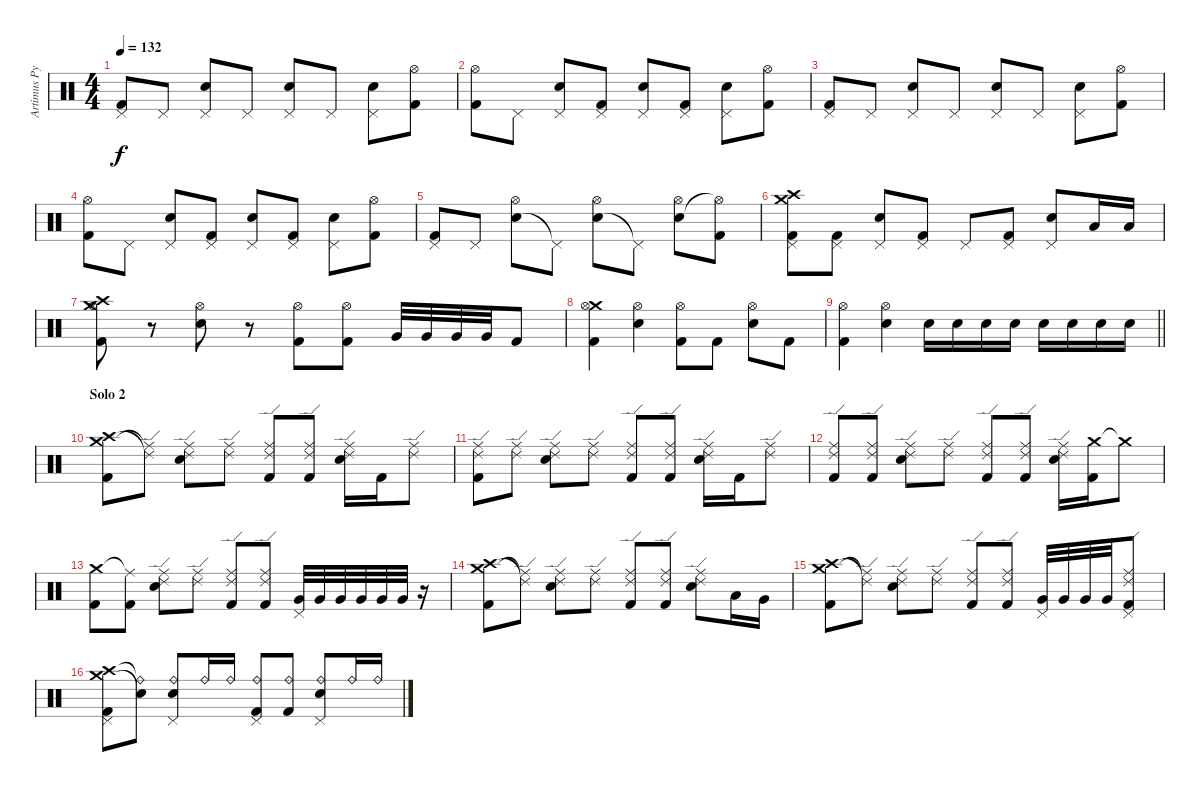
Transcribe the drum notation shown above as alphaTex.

\track ("Artimus Pyle" "Artimus Py") {instrument percussion}
\staff {score}
\articulation defaults
\ts (4 4)
\tempo 132
\clef neutral
\ks c
("Pedal Hi-Hat (hit)" "Kick (hit) 2").8{dy f} "Pedal Hi-Hat (hit)".8 ("Snare (hit) 2" "Pedal Hi-Hat (hit)").8 "Pedal Hi-Hat (hit)".8 ("Snare (hit) 2" "Pedal Hi-Hat (hit)").8 "Pedal Hi-Hat (hit)".8 ("Snare (hit) 2" "Pedal Hi-Hat (hit)").8 ("Hi-Hat (open)" "Kick (hit) 2").8 |
("Hi-Hat (open)" "Kick (hit) 2").8 "Pedal Hi-Hat (hit)".8 ("Snare (hit) 2" "Pedal Hi-Hat (hit)").8 ("Pedal Hi-Hat (hit)" "Kick (hit) 2").8 ("Snare (hit) 2" "Pedal Hi-Hat (hit)").8 ("Pedal Hi-Hat (hit)" "Kick (hit) 2").8 ("Snare (hit) 2" "Pedal Hi-Hat (hit)").8 ("Hi-Hat (open)" "Kick (hit) 2").8 |
("Pedal Hi-Hat (hit)" "Kick (hit) 2").8 "Pedal Hi-Hat (hit)".8 ("Snare (hit) 2" "Pedal Hi-Hat (hit)").8 "Pedal Hi-Hat (hit)".8 ("Snare (hit) 2" "Pedal Hi-Hat (hit)").8 "Pedal Hi-Hat (hit)".8 ("Snare (hit) 2" "Pedal Hi-Hat (hit)").8 ("Hi-Hat (open)" "Kick (hit) 2").8 |
("Hi-Hat (open)" "Kick (hit) 2").8 "Pedal Hi-Hat (hit)".8 ("Snare (hit) 2" "Pedal Hi-Hat (hit)").8 ("Pedal Hi-Hat (hit)" "Kick (hit) 2").8 ("Snare (hit) 2" "Pedal Hi-Hat (hit)").8 ("Pedal Hi-Hat (hit)" "Kick (hit) 2").8 ("Snare (hit) 2" "Pedal Hi-Hat (hit)").8 ("Hi-Hat (open)" "Kick (hit) 2").8 |
("Pedal Hi-Hat (hit)" "Kick (hit) 2").8 "Pedal Hi-Hat (hit)".8 ("Snare (hit) 2" "Hi-Hat (open)").8 "Pedal Hi-Hat (hit)"{t}.8 ("Snare (hit) 2" "Hi-Hat (open)").8 "Pedal Hi-Hat (hit)"{t}.8 ("Snare (hit) 2" "Hi-Hat (open)").8 ("Hi-Hat (open)"{t} "Kick (hit) 2").8 |
("Crash high (hit)" "Crash medium (hit)" "Pedal Hi-Hat (hit)" "Kick (hit) 2").8 ("Pedal Hi-Hat (hit)" "Kick (hit) 2").8 ("Snare (hit) 2" "Pedal Hi-Hat (hit)").8 ("Pedal Hi-Hat (hit)" "Kick (hit) 2").8 "Pedal Hi-Hat (hit)".8 ("Pedal Hi-Hat (hit)" "Kick (hit) 2").8 ("Snare (hit) 2" "Pedal Hi-Hat (hit)").8 "Low Tom (hit)".16 "Low Tom (hit)".16 |
("Crash medium (hit)" "Crash high (hit)" "Hi-Hat (open)" "Kick (hit) 2").8 r.8 ("Snare (hit) 2" "Hi-Hat (open)").8 r.8 ("Hi-Hat (open)" "Kick (hit) 2").8 ("Hi-Hat (open)" "Kick (hit) 2").8 "Very Low Tom (hit)".32 "Very Low Tom (hit)".32 "Very Low Tom (hit)".32 "Very Low Tom (hit)".32 "Kick (hit) 2".8 |
("Crash medium (hit)" "Hi-Hat (open)" "Kick (hit) 2").4 ("Snare (hit) 2" "Hi-Hat (open)").4 ("Hi-Hat (open)" "Kick (hit) 2").8 "Kick (hit) 2".8 ("Snare (hit) 2" "Hi-Hat (open)").8 "Kick (hit) 2".8 |
\barLineRight lightlight
("Hi-Hat (open)" "Kick (hit) 2").4 ("Snare (hit) 2" "Hi-Hat (open)").4 "Snare (hit) 2".16 "Snare (hit) 2".16 "Snare (hit) 2".16 "Snare (hit) 2".16 "Snare (hit) 2".16 "Snare (hit) 2".16 "Snare (hit) 2".16 "Snare (hit) 2".16 |
\section ("" "Solo 2")
("Crash medium (hit)" "Crash high (hit)" "Kick (hit) 2").8 ("Ride (middle)"{t} "Ride (edge) 2"{t}).8 ("Ride (middle)" "Ride (edge) 2" "Snare (hit) 2").8 ("Ride (middle)" "Ride (edge) 2").8 ("Ride (middle)" "Ride (edge) 2" "Kick (hit) 2").8 ("Ride (middle)" "Ride (edge) 2" "Kick (hit) 2").8 ("Ride (middle)" "Ride (edge) 2" "Snare (hit) 2").16 "Kick (hit) 2".16 ("Ride (middle)" "Ride (edge) 2").8 |
("Ride (middle)" "Ride (edge) 2" "Kick (hit) 2").8 ("Ride (middle)" "Ride (edge) 2").8 ("Ride (middle)" "Ride (edge) 2" "Snare (hit) 2").8 ("Ride (middle)" "Ride (edge) 2").8 ("Ride (middle)" "Ride (edge) 2" "Kick (hit) 2").8 ("Ride (middle)" "Ride (edge) 2" "Kick (hit) 2").8 ("Ride (middle)" "Ride (edge) 2" "Snare (hit) 2").16 "Kick (hit) 2".16 ("Ride (middle)" "Ride (edge) 2").8 |
("Ride (middle)" "Ride (edge) 2" "Kick (hit) 2").8 ("Ride (middle)" "Ride (edge) 2" "Kick (hit) 2").8 ("Ride (middle)" "Ride (edge) 2" "Snare (hit) 2").8 ("Ride (middle)" "Ride (edge) 2").8 ("Ride (middle)" "Ride (edge) 2" "Kick (hit) 2").8 ("Ride (middle)" "Ride (edge) 2" "Kick (hit) 2").8 ("Ride (middle)" "Ride (edge) 2" "Snare (hit) 2").16 ("Crash medium (hit)" "Kick (hit) 2").16 "Crash medium (hit)"{t}.8 |
("Crash medium (hit)" "Kick (hit) 2").8 ("Ride (middle)"{t} "Kick (hit) 2").8 ("Ride (middle)" "Ride (edge) 2" "Snare (hit) 2").8 ("Ride (middle)" "Ride (edge) 2").8 ("Ride (middle)" "Ride (edge) 2" "Kick (hit) 2").8 ("Ride (middle)" "Ride (edge) 2" "Kick (hit) 2").8 ("Very Low Tom (hit)" "Pedal Hi-Hat (hit)").32 "Very Low Tom (hit)".32 "Very Low Tom (hit)".32 "Very Low Tom (hit)".32 "Very Low Tom (hit)".32 "Very Low Tom (hit)".32 r.16 |
("Crash medium (hit)" "Crash high (hit)" "Kick (hit) 2").8 ("Ride (middle)"{t} "Ride (edge) 2"{t}).8 ("Ride (middle)" "Ride (edge) 2" "Snare (hit) 2").8 ("Ride (middle)" "Ride (edge) 2").8 ("Ride (middle)" "Ride (edge) 2" "Kick (hit) 2").8 ("Ride (middle)" "Ride (edge) 2" "Kick (hit) 2").8 ("Ride (middle)" "Ride (edge) 2" "Snare (hit) 2").8 "Low Tom (hit)".16 "Very Low Tom (hit)".16 |
("Crash medium (hit)" "Crash high (hit)" "Kick (hit) 2").8 ("Ride (middle)"{t} "Ride (edge) 2"{t}).8 ("Ride (middle)" "Ride (edge) 2" "Snare (hit) 2").8 ("Ride (middle)" "Ride (edge) 2").8 ("Ride (middle)" "Ride (edge) 2" "Kick (hit) 2").8 ("Ride (middle)" "Ride (edge) 2" "Kick (hit) 2").8 ("Very Low Tom (hit)" "Pedal Hi-Hat (hit)").32 "Very Low Tom (hit)".32 "Very Low Tom (hit)".32 "Very Low Tom (hit)".32 ("Ride (edge) 2" "Ride (middle)" "Pedal Hi-Hat (hit)" "Kick (hit) 2").8 |
("Crash high (hit)" "Crash medium (hit)" "Pedal Hi-Hat (hit)" "Kick (hit) 2").8 ("Ride (bell)"{t} "Snare (hit)"{t}).8 ("Ride (bell)" "Snare (hit) 2" "Pedal Hi-Hat (hit)").8 "Ride (bell)".16 "Ride (bell)".16 ("Ride (bell)" "Pedal Hi-Hat (hit)" "Kick (hit) 2").8 ("Ride (bell)" "Kick (hit) 2").8 ("Ride (bell)" "Snare (hit) 2" "Pedal Hi-Hat (hit)").8 "Ride (bell)".16 "Ride (bell)".16
